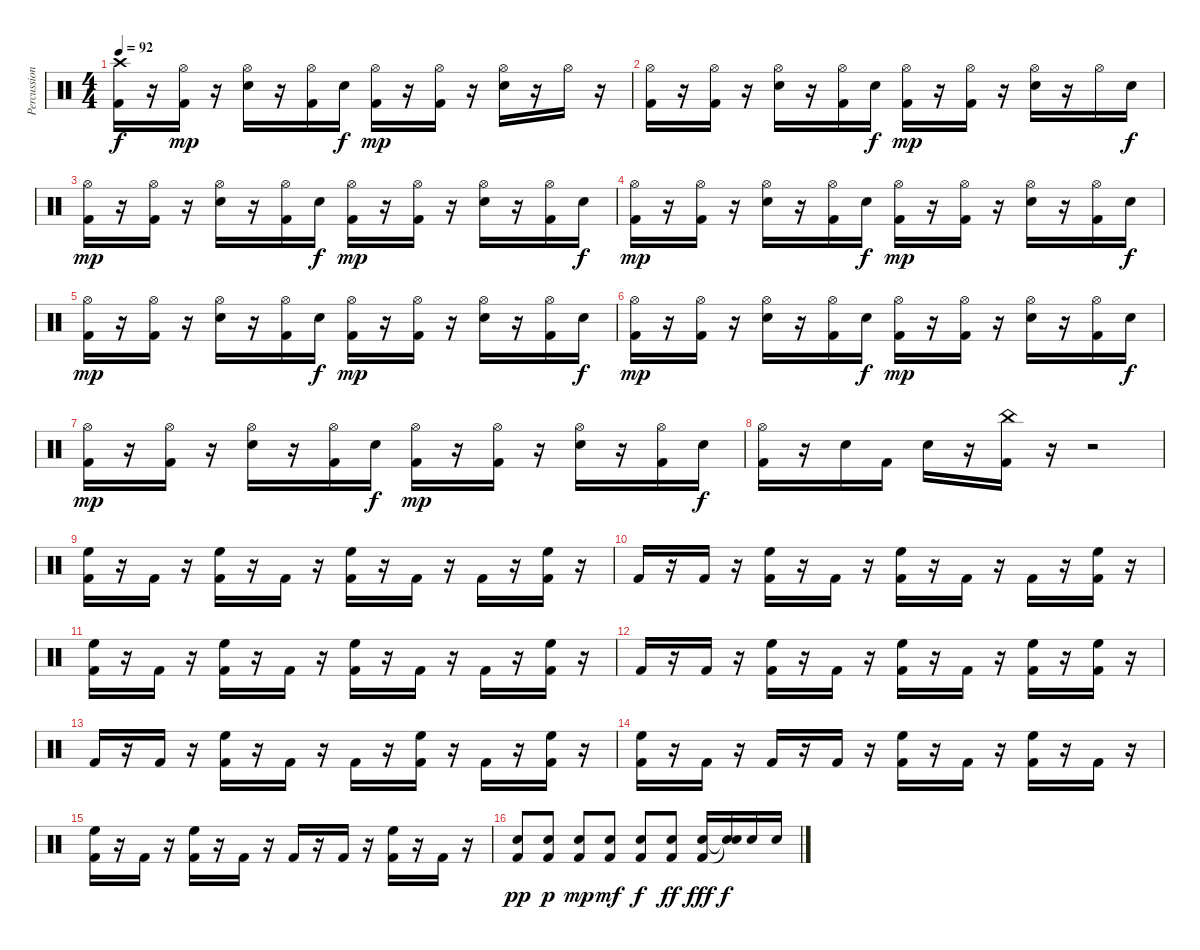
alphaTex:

\track ("Percussion" "Percussion") {instrument percussion}
\staff {score}
\articulation defaults
\ts (4 4)
\tempo 92
\clef neutral
\ks c
("Crash high (hit)" "Kick (hit) 2").16{dy f} r.16 ("Hi-Hat (open)" "Kick (hit) 2").16{dy mp} r.16 ("Hi-Hat (open)" "Electric Snare (hit)").16 r.16 ("Hi-Hat (open)" "Kick (hit) 2").16 "Electric Snare (hit)".16{dy f} ("Hi-Hat (open)" "Kick (hit) 2").16{dy mp} r.16 ("Hi-Hat (open)" "Kick (hit) 2").16 r.16 ("Hi-Hat (open)" "Electric Snare (hit)").16 r.16 "Hi-Hat (open)".16 r.16 |
("Hi-Hat (open)" "Kick (hit) 2").16 r.16 ("Hi-Hat (open)" "Kick (hit) 2").16 r.16 ("Hi-Hat (open)" "Electric Snare (hit)").16 r.16 ("Hi-Hat (open)" "Kick (hit) 2").16 "Electric Snare (hit)".16{dy f} ("Hi-Hat (open)" "Kick (hit) 2").16{dy mp} r.16 ("Hi-Hat (open)" "Kick (hit) 2").16 r.16 ("Hi-Hat (open)" "Electric Snare (hit)").16 r.16 "Hi-Hat (open)".16 "Electric Snare (hit)".16{dy f} |
("Hi-Hat (open)" "Kick (hit) 2").16{dy mp} r.16 ("Hi-Hat (open)" "Kick (hit) 2").16 r.16 ("Hi-Hat (open)" "Electric Snare (hit)").16 r.16 ("Hi-Hat (open)" "Kick (hit) 2").16 "Electric Snare (hit)".16{dy f} ("Hi-Hat (open)" "Kick (hit) 2").16{dy mp} r.16 ("Hi-Hat (open)" "Kick (hit) 2").16 r.16 ("Hi-Hat (open)" "Electric Snare (hit)").16 r.16 ("Hi-Hat (open)" "Kick (hit) 2").16 "Electric Snare (hit)".16{dy f} |
("Hi-Hat (open)" "Kick (hit) 2").16{dy mp} r.16 ("Hi-Hat (open)" "Kick (hit) 2").16 r.16 ("Hi-Hat (open)" "Electric Snare (hit)").16 r.16 ("Hi-Hat (open)" "Kick (hit) 2").16 "Electric Snare (hit)".16{dy f} ("Hi-Hat (open)" "Kick (hit) 2").16{dy mp} r.16 ("Hi-Hat (open)" "Kick (hit) 2").16 r.16 ("Hi-Hat (open)" "Electric Snare (hit)").16 r.16 ("Hi-Hat (open)" "Kick (hit) 2").16 "Electric Snare (hit)".16{dy f} |
("Hi-Hat (open)" "Kick (hit) 2").16{dy mp} r.16 ("Hi-Hat (open)" "Kick (hit) 2").16 r.16 ("Hi-Hat (open)" "Electric Snare (hit)").16 r.16 ("Hi-Hat (open)" "Kick (hit) 2").16 "Electric Snare (hit)".16{dy f} ("Hi-Hat (open)" "Kick (hit) 2").16{dy mp} r.16 ("Hi-Hat (open)" "Kick (hit) 2").16 r.16 ("Hi-Hat (open)" "Electric Snare (hit)").16 r.16 ("Hi-Hat (open)" "Kick (hit) 2").16 "Electric Snare (hit)".16{dy f} |
("Hi-Hat (open)" "Kick (hit) 2").16{dy mp} r.16 ("Hi-Hat (open)" "Kick (hit) 2").16 r.16 ("Hi-Hat (open)" "Electric Snare (hit)").16 r.16 ("Hi-Hat (open)" "Kick (hit) 2").16 "Electric Snare (hit)".16{dy f} ("Hi-Hat (open)" "Kick (hit) 2").16{dy mp} r.16 ("Hi-Hat (open)" "Kick (hit) 2").16 r.16 ("Hi-Hat (open)" "Electric Snare (hit)").16 r.16 ("Hi-Hat (open)" "Kick (hit) 2").16 "Electric Snare (hit)".16{dy f} |
("Hi-Hat (open)" "Kick (hit) 2").16{dy mp} r.16 ("Hi-Hat (open)" "Kick (hit) 2").16 r.16 ("Hi-Hat (open)" "Electric Snare (hit)").16 r.16 ("Hi-Hat (open)" "Kick (hit) 2").16 "Electric Snare (hit)".16{dy f} ("Hi-Hat (open)" "Kick (hit) 2").16{dy mp} r.16 ("Hi-Hat (open)" "Kick (hit) 2").16 r.16 ("Hi-Hat (open)" "Electric Snare (hit)").16 r.16 ("Hi-Hat (open)" "Kick (hit) 2").16 "Electric Snare (hit)".16{dy f} |
("Hi-Hat (open)" "Kick (hit) 2").16 r.16 "Electric Snare (hit)".16 "Kick (hit) 2".16 "Electric Snare (hit)".16 r.16 ("China (hit)" "Kick (hit) 2").16 r.16 r.2 |
("High Floor Tom (hit)" "Kick (hit) 2").16 r.16 "Kick (hit) 2".16 r.16 ("High Floor Tom (hit)" "Kick (hit) 2").16 r.16 "Kick (hit) 2".16 r.16 ("High Floor Tom (hit)" "Kick (hit) 2").16 r.16 "Kick (hit) 2".16 r.16 "Kick (hit) 2".16 r.16 ("High Floor Tom (hit)" "Kick (hit) 2").16 r.16 |
"Kick (hit) 2".16 r.16 "Kick (hit) 2".16 r.16 ("High Floor Tom (hit)" "Kick (hit) 2").16 r.16 "Kick (hit) 2".16 r.16 ("High Floor Tom (hit)" "Kick (hit) 2").16 r.16 "Kick (hit) 2".16 r.16 "Kick (hit) 2".16 r.16 ("High Floor Tom (hit)" "Kick (hit) 2").16 r.16 |
("High Floor Tom (hit)" "Kick (hit) 2").16 r.16 "Kick (hit) 2".16 r.16 ("High Floor Tom (hit)" "Kick (hit) 2").16 r.16 "Kick (hit) 2".16 r.16 ("High Floor Tom (hit)" "Kick (hit) 2").16 r.16 "Kick (hit) 2".16 r.16 "Kick (hit) 2".16 r.16 ("High Floor Tom (hit)" "Kick (hit) 2").16 r.16 |
"Kick (hit) 2".16 r.16 "Kick (hit) 2".16 r.16 ("High Floor Tom (hit)" "Kick (hit) 2").16 r.16 "Kick (hit) 2".16 r.16 ("High Floor Tom (hit)" "Kick (hit) 2").16 r.16 "Kick (hit) 2".16 r.16 ("High Floor Tom (hit)" "Kick (hit) 2").16 r.16 ("High Floor Tom (hit)" "Kick (hit) 2").16 r.16 |
"Kick (hit) 2".16 r.16 "Kick (hit) 2".16 r.16 ("High Floor Tom (hit)" "Kick (hit) 2").16 r.16 "Kick (hit) 2".16 r.16 "Kick (hit) 2".16 r.16 ("High Floor Tom (hit)" "Kick (hit) 2").16 r.16 "Kick (hit) 2".16 r.16 ("High Floor Tom (hit)" "Kick (hit) 2").16 r.16 |
("High Floor Tom (hit)" "Kick (hit) 2").16 r.16 "Kick (hit) 2".16 r.16 "Kick (hit) 2".16 r.16 "Kick (hit) 2".16 r.16 ("High Floor Tom (hit)" "Kick (hit) 2").16 r.16 "Kick (hit) 2".16 r.16 ("High Floor Tom (hit)" "Kick (hit) 2").16 r.16 "Kick (hit) 2".16 r.16 |
("High Floor Tom (hit)" "Kick (hit) 2").16 r.16 "Kick (hit) 2".16 r.16 ("High Floor Tom (hit)" "Kick (hit) 2").16 r.16 "Kick (hit) 2".16 r.16 "Kick (hit) 2".16 r.16 "Kick (hit) 2".16 r.16 ("High Floor Tom (hit)" "Kick (hit) 2").16 r.16 "Kick (hit) 2".16 r.16 |
("Electric Snare (hit)" "Kick (hit) 2").8{dy pp} ("Electric Snare (hit)" "Kick (hit) 2").8{dy p} ("Electric Snare (hit)" "Kick (hit) 2").8{dy mp} ("Electric Snare (hit)" "Kick (hit) 2").8{dy mf} ("Electric Snare (hit)" "Kick (hit) 2").8{dy f} ("Electric Snare (hit)" "Kick (hit) 2").8{dy ff} ("Electric Snare (hit)" "Kick (hit) 2").16{dy fff} ("Electric Snare (hit)"{t} "Snare (hit)"{t}).16{dy f} "Electric Snare (hit)".16 "Electric Snare (hit)".16
